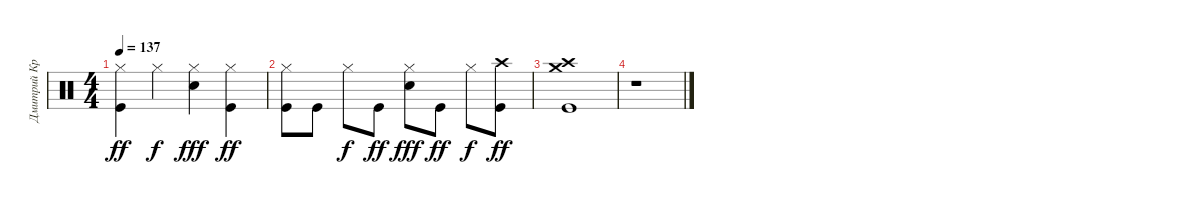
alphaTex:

\track ("Дмитрий Кревенков" "Дмитрий Кр") {instrument percussion}
\staff {score}
\articulation defaults
\ts (4 4)
\tempo 137
\clef neutral
\ks c
("Hi-Hat (closed)" "Kick (hit)").4{dy ff} "Hi-Hat (closed)".4{dy f} ("Snare (hit) 2" "Hi-Hat (closed)").4{dy fff} ("Kick (hit)" "Hi-Hat (closed)").4{dy ff} |
("Kick (hit)" "Hi-Hat (closed)").8 "Kick (hit)".8 "Hi-Hat (closed)".8{dy f} "Kick (hit)".8{dy ff} ("Snare (hit) 2" "Hi-Hat (closed)").8{dy fff} "Kick (hit)".8{dy ff} "Hi-Hat (closed)".8{dy f} ("Crash high (hit)" "Kick (hit)").8{dy ff} |
("Crash high (hit)" "Crash medium (hit)" "Kick (hit)").1 |
r.1
